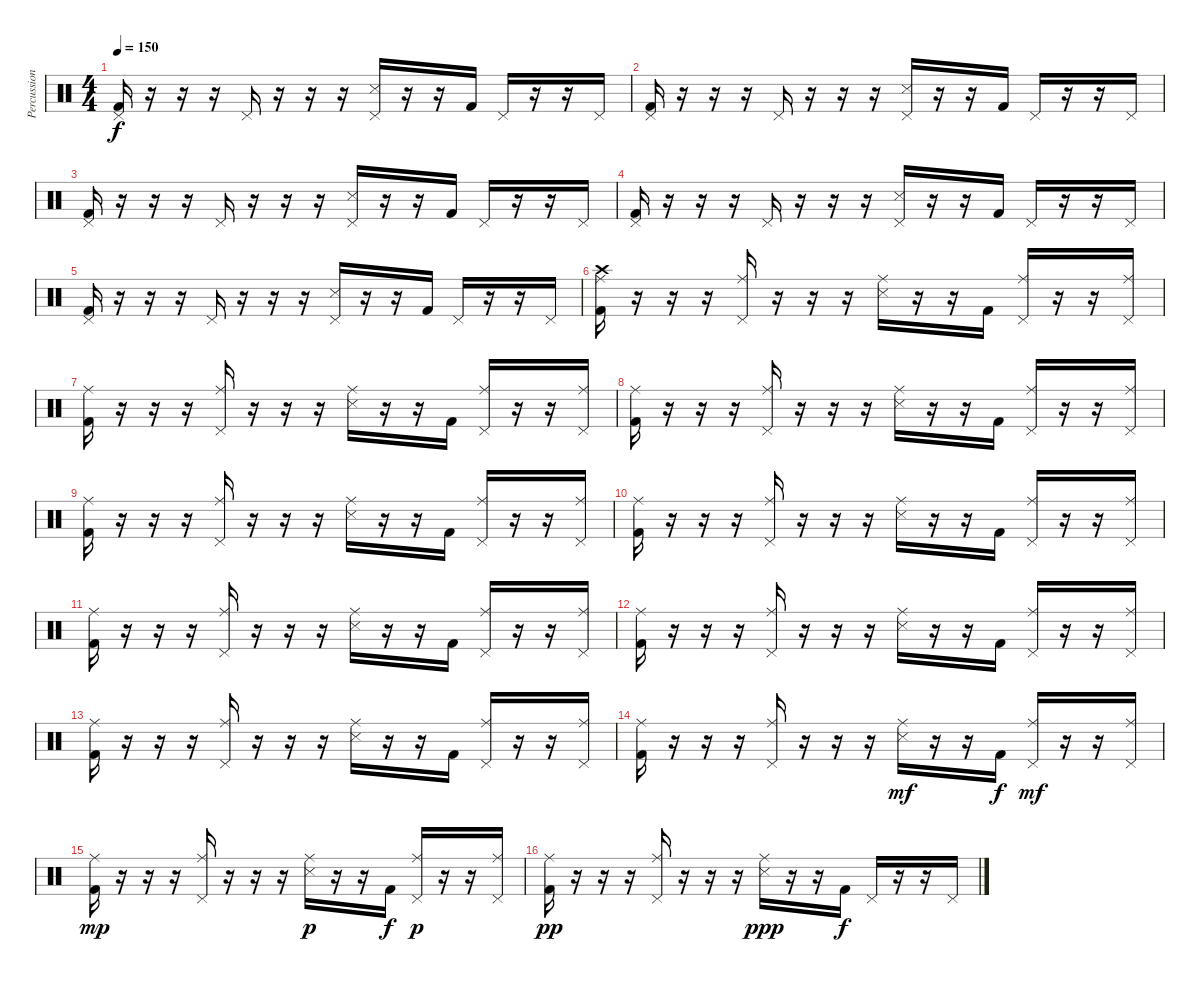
\track ("Percussion" "Percussion") {instrument percussion}
\staff {score}
\articulation defaults
\ts (4 4)
\tempo 150
\clef neutral
\ks c
("Pedal Hi-Hat (hit)" "Kick (hit) 2").16{dy f} r.16 r.16 r.16 "Pedal Hi-Hat (hit)".16 r.16 r.16 r.16 ("Pedal Hi-Hat (hit)" "Snare (side stick) 3").16 r.16 r.16 "Kick (hit) 2".16 "Pedal Hi-Hat (hit)".16 r.16 r.16 "Pedal Hi-Hat (hit)".16 |
("Pedal Hi-Hat (hit)" "Kick (hit) 2").16 r.16 r.16 r.16 "Pedal Hi-Hat (hit)".16 r.16 r.16 r.16 ("Pedal Hi-Hat (hit)" "Snare (side stick) 3").16 r.16 r.16 "Kick (hit) 2".16 "Pedal Hi-Hat (hit)".16 r.16 r.16 "Pedal Hi-Hat (hit)".16 |
("Pedal Hi-Hat (hit)" "Kick (hit) 2").16 r.16 r.16 r.16 "Pedal Hi-Hat (hit)".16 r.16 r.16 r.16 ("Pedal Hi-Hat (hit)" "Snare (side stick) 3").16 r.16 r.16 "Kick (hit) 2".16 "Pedal Hi-Hat (hit)".16 r.16 r.16 "Pedal Hi-Hat (hit)".16 |
("Pedal Hi-Hat (hit)" "Kick (hit) 2").16 r.16 r.16 r.16 "Pedal Hi-Hat (hit)".16 r.16 r.16 r.16 ("Pedal Hi-Hat (hit)" "Snare (side stick) 3").16 r.16 r.16 "Kick (hit) 2".16 "Pedal Hi-Hat (hit)".16 r.16 r.16 "Pedal Hi-Hat (hit)".16 |
("Pedal Hi-Hat (hit)" "Kick (hit) 2").16 r.16 r.16 r.16 "Pedal Hi-Hat (hit)".16 r.16 r.16 r.16 ("Pedal Hi-Hat (hit)" "Snare (side stick) 3").16 r.16 r.16 "Kick (hit) 2".16 "Pedal Hi-Hat (hit)".16 r.16 r.16 "Pedal Hi-Hat (hit)".16 |
("Crash high (hit)" "Ride (middle)" "Kick (hit) 2").16 r.16 r.16 r.16 ("Ride (middle)" "Pedal Hi-Hat (hit)").16 r.16 r.16 r.16 ("Ride (middle)" "Snare (side stick) 3").16 r.16 r.16 "Kick (hit) 2".16 ("Ride (middle)" "Pedal Hi-Hat (hit)").16 r.16 r.16 ("Ride (middle)" "Pedal Hi-Hat (hit)").16 |
("Ride (middle)" "Kick (hit) 2").16 r.16 r.16 r.16 ("Ride (middle)" "Pedal Hi-Hat (hit)").16 r.16 r.16 r.16 ("Ride (middle)" "Snare (side stick) 3").16 r.16 r.16 "Kick (hit) 2".16 ("Ride (middle)" "Pedal Hi-Hat (hit)").16 r.16 r.16 ("Ride (middle)" "Pedal Hi-Hat (hit)").16 |
("Ride (middle)" "Kick (hit) 2").16 r.16 r.16 r.16 ("Ride (middle)" "Pedal Hi-Hat (hit)").16 r.16 r.16 r.16 ("Ride (middle)" "Snare (side stick) 3").16 r.16 r.16 "Kick (hit) 2".16 ("Ride (middle)" "Pedal Hi-Hat (hit)").16 r.16 r.16 ("Ride (middle)" "Pedal Hi-Hat (hit)").16 |
("Ride (middle)" "Kick (hit) 2").16 r.16 r.16 r.16 ("Ride (middle)" "Pedal Hi-Hat (hit)").16 r.16 r.16 r.16 ("Ride (middle)" "Snare (side stick) 3").16 r.16 r.16 "Kick (hit) 2".16 ("Ride (middle)" "Pedal Hi-Hat (hit)").16 r.16 r.16 ("Ride (middle)" "Pedal Hi-Hat (hit)").16 |
("Ride (middle)" "Kick (hit) 2").16 r.16 r.16 r.16 ("Ride (middle)" "Pedal Hi-Hat (hit)").16 r.16 r.16 r.16 ("Ride (middle)" "Snare (side stick) 3").16 r.16 r.16 "Kick (hit) 2".16 ("Ride (middle)" "Pedal Hi-Hat (hit)").16 r.16 r.16 ("Ride (middle)" "Pedal Hi-Hat (hit)").16 |
("Ride (middle)" "Kick (hit) 2").16 r.16 r.16 r.16 ("Ride (middle)" "Pedal Hi-Hat (hit)").16 r.16 r.16 r.16 ("Ride (middle)" "Snare (side stick) 3").16 r.16 r.16 "Kick (hit) 2".16 ("Ride (middle)" "Pedal Hi-Hat (hit)").16 r.16 r.16 ("Ride (middle)" "Pedal Hi-Hat (hit)").16 |
("Ride (middle)" "Kick (hit) 2").16 r.16 r.16 r.16 ("Ride (middle)" "Pedal Hi-Hat (hit)").16 r.16 r.16 r.16 ("Ride (middle)" "Snare (side stick) 3").16 r.16 r.16 "Kick (hit) 2".16 ("Ride (middle)" "Pedal Hi-Hat (hit)").16 r.16 r.16 ("Ride (middle)" "Pedal Hi-Hat (hit)").16 |
("Ride (middle)" "Kick (hit) 2").16 r.16 r.16 r.16 ("Ride (middle)" "Pedal Hi-Hat (hit)").16 r.16 r.16 r.16 ("Ride (middle)" "Snare (side stick) 3").16 r.16 r.16 "Kick (hit) 2".16 ("Ride (middle)" "Pedal Hi-Hat (hit)").16 r.16 r.16 ("Ride (middle)" "Pedal Hi-Hat (hit)").16 |
("Ride (middle)" "Kick (hit) 2").16 r.16 r.16 r.16 ("Ride (middle)" "Pedal Hi-Hat (hit)").16 r.16 r.16 r.16 ("Ride (middle)" "Snare (side stick) 3").16{dy mf} r.16 r.16 "Kick (hit) 2".16{dy f} ("Ride (middle)" "Pedal Hi-Hat (hit)").16{dy mf} r.16 r.16 ("Ride (middle)" "Pedal Hi-Hat (hit)").16 |
("Ride (middle)" "Kick (hit) 2").16{dy mp} r.16 r.16 r.16 ("Ride (middle)" "Pedal Hi-Hat (hit)").16 r.16 r.16 r.16 ("Ride (middle)" "Snare (side stick) 3").16{dy p} r.16 r.16 "Kick (hit) 2".16{dy f} ("Ride (middle)" "Pedal Hi-Hat (hit)").16{dy p} r.16 r.16 ("Ride (middle)" "Pedal Hi-Hat (hit)").16 |
("Ride (middle)" "Kick (hit) 2").16{dy pp} r.16 r.16 r.16 ("Ride (middle)" "Pedal Hi-Hat (hit)").16 r.16 r.16 r.16 ("Ride (middle)" "Snare (side stick) 3").16{dy ppp} r.16 r.16 "Kick (hit) 2".16{dy f} "Pedal Hi-Hat (hit)".16 r.16 r.16 "Pedal Hi-Hat (hit)".16
